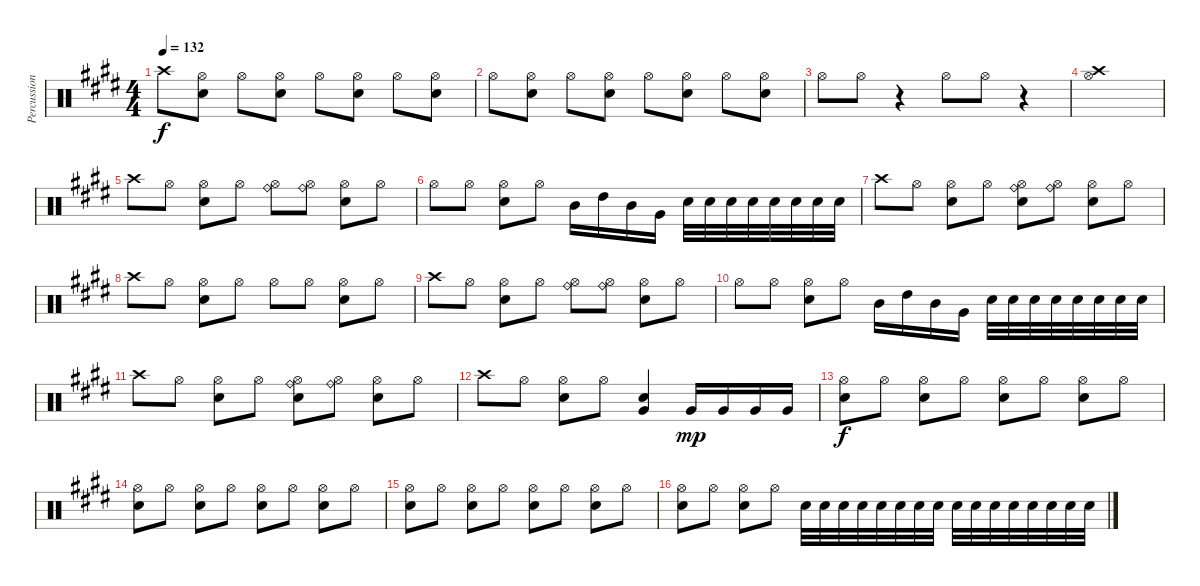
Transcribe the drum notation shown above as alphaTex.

\track ("Percussion (Gelnn Porter)" "Percussion") {instrument percussion}
\staff {score}
\articulation defaults
\ts (4 4)
\tempo 132
\clef neutral
\ks c#minor "Crash high (hit)".8{dy f}
("Hi-Hat (open)" "Snare (hit) 2").8 "Hi-Hat (open)".8 ("Hi-Hat (open)" "Snare (hit) 2").8 "Hi-Hat (open)".8 ("Hi-Hat (open)" "Snare (hit) 2").8 "Hi-Hat (open)".8 ("Hi-Hat (open)" "Snare (hit) 2").8 |
"Hi-Hat (open)".8 ("Hi-Hat (open)" "Snare (hit) 2").8 "Hi-Hat (open)".8 ("Hi-Hat (open)" "Snare (hit) 2").8 "Hi-Hat (open)".8 ("Hi-Hat (open)" "Snare (hit) 2").8 "Hi-Hat (open)".8 ("Hi-Hat (open)" "Snare (hit) 2").8 |
"Hi-Hat (open)".8 "Hi-Hat (open)".8 r.4 "Hi-Hat (open)".8 "Hi-Hat (open)".8 r.4 |
("Crash high (hit)" "Hi-Hat (open)").1 |
\ks e "Crash high (hit)".8 "Hi-Hat (open)".8
("Hi-Hat (open)" "Snare (hit) 2").8 "Hi-Hat (open)".8 ("Hi-Hat (open)" "Ride (bell)").8 ("Hi-Hat (open)" "Ride (bell)").8 ("Hi-Hat (open)" "Snare (hit) 2").8 "Hi-Hat (open)".8 |
"Hi-Hat (open)".8 "Hi-Hat (open)".8 ("Hi-Hat (open)" "Snare (hit) 2").8 "Hi-Hat (open)".8 "Mid Tom (hit)".16 "High Tom (hit)".16 "Mid Tom (hit)".16 "Very Low Tom (hit)".16 "Snare (hit) 2".32 "Snare (hit) 2".32 "Snare (hit) 2".32 "Snare (hit) 2".32 "Snare (hit) 2".32 "Snare (hit) 2".32 "Snare (hit) 2".32 "Snare (hit) 2".32 |
"Crash high (hit)".8 "Hi-Hat (open)".8 ("Hi-Hat (open)" "Snare (hit) 2").8 "Hi-Hat (open)".8 ("Hi-Hat (open)" "Ride (bell)" "Snare (hit) 2").8 ("Hi-Hat (open)" "Ride (bell)").8 ("Hi-Hat (open)" "Snare (hit) 2").8 "Hi-Hat (open)".8 |
"Crash high (hit)".8 "Hi-Hat (open)".8 ("Hi-Hat (open)" "Snare (hit) 2").8 "Hi-Hat (open)".8 "Hi-Hat (open)".8 "Hi-Hat (open)".8 ("Hi-Hat (open)" "Snare (hit) 2").8 "Hi-Hat (open)".8 |
"Crash high (hit)".8 "Hi-Hat (open)".8 ("Hi-Hat (open)" "Snare (hit) 2").8 "Hi-Hat (open)".8 ("Hi-Hat (open)" "Ride (bell)").8 ("Hi-Hat (open)" "Ride (bell)").8 ("Hi-Hat (open)" "Snare (hit) 2").8 "Hi-Hat (open)".8 |
"Hi-Hat (open)".8 "Hi-Hat (open)".8 ("Hi-Hat (open)" "Snare (hit) 2").8 "Hi-Hat (open)".8 "Mid Tom (hit)".16 "High Tom (hit)".16 "Mid Tom (hit)".16 "Very Low Tom (hit)".16 "Snare (hit) 2".32 "Snare (hit) 2".32 "Snare (hit) 2".32 "Snare (hit) 2".32 "Snare (hit) 2".32 "Snare (hit) 2".32 "Snare (hit) 2".32 "Snare (hit) 2".32 |
"Crash high (hit)".8 "Hi-Hat (open)".8 ("Hi-Hat (open)" "Snare (hit) 2").8 "Hi-Hat (open)".8 ("Hi-Hat (open)" "Ride (bell)" "Snare (hit) 2").8 ("Hi-Hat (open)" "Ride (bell)").8 ("Hi-Hat (open)" "Snare (hit) 2").8 "Hi-Hat (open)".8 |
"Crash high (hit)".8 "Hi-Hat (open)".8 ("Hi-Hat (open)" "Snare (hit) 2").8 "Hi-Hat (open)".8 ("Snare (hit) 2" "Very Low Tom (hit)").4 "Very Low Tom (hit)".16{dy mp} "Very Low Tom (hit)".16 "Very Low Tom (hit)".16 "Very Low Tom (hit)".16 |
("Hi-Hat (open)" "Snare (hit) 2").8{dy f} "Hi-Hat (open)".8 ("Hi-Hat (open)" "Snare (hit) 2").8 "Hi-Hat (open)".8 ("Hi-Hat (open)" "Snare (hit) 2").8 "Hi-Hat (open)".8 ("Hi-Hat (open)" "Snare (hit) 2").8 "Hi-Hat (open)".8 |
("Hi-Hat (open)" "Snare (hit) 2").8 "Hi-Hat (open)".8 ("Hi-Hat (open)" "Snare (hit) 2").8 "Hi-Hat (open)".8 ("Hi-Hat (open)" "Snare (hit) 2").8 "Hi-Hat (open)".8 ("Hi-Hat (open)" "Snare (hit) 2").8 "Hi-Hat (open)".8 |
("Hi-Hat (open)" "Snare (hit) 2").8 "Hi-Hat (open)".8 ("Hi-Hat (open)" "Snare (hit) 2").8 "Hi-Hat (open)".8 ("Hi-Hat (open)" "Snare (hit) 2").8 "Hi-Hat (open)".8 ("Hi-Hat (open)" "Snare (hit) 2").8 "Hi-Hat (open)".8 |
("Hi-Hat (open)" "Snare (hit) 2").8 "Hi-Hat (open)".8 ("Hi-Hat (open)" "Snare (hit) 2").8 "Hi-Hat (open)".8 "Snare (hit) 2".32 "Snare (hit) 2".32 "Snare (hit) 2".32 "Snare (hit) 2".32 "Snare (hit) 2".32 "Snare (hit) 2".32 "Snare (hit) 2".32 "Snare (hit) 2".32 "Snare (hit) 2".32 "Snare (hit) 2".32 "Snare (hit) 2".32 "Snare (hit) 2".32 "Snare (hit) 2".32 "Snare (hit) 2".32 "Snare (hit) 2".32 "Snare (hit) 2".32
